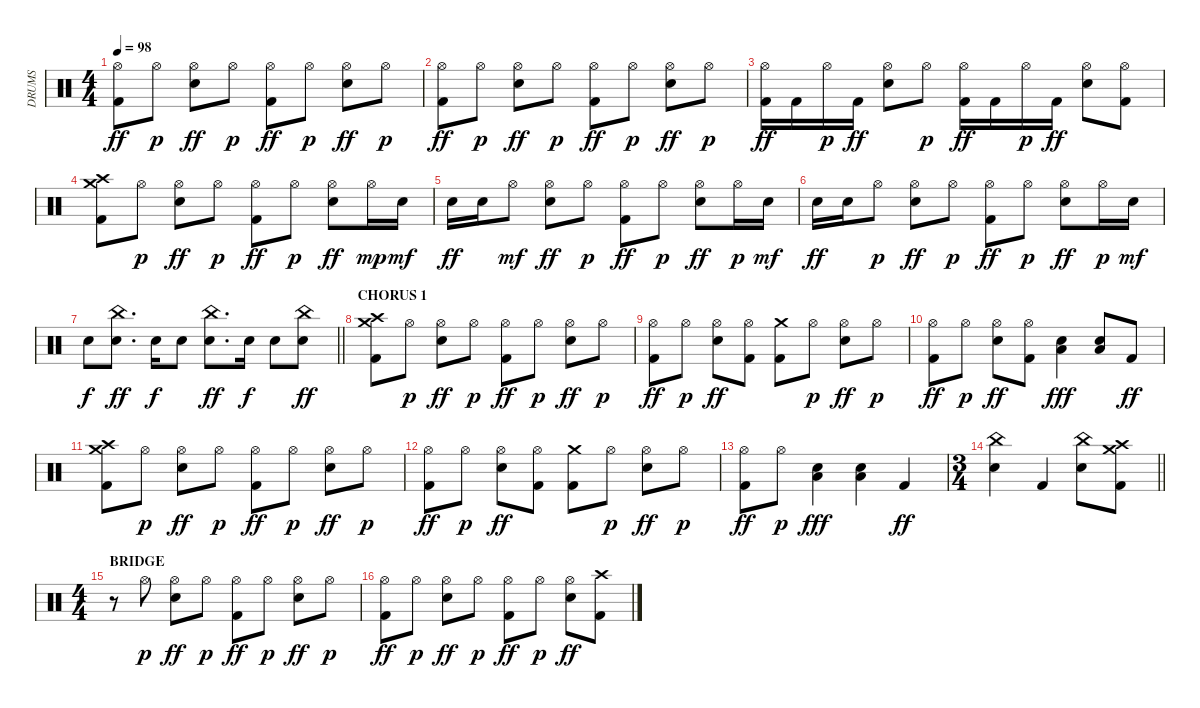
\track ("DRUMS" "DRUMS") {instrument percussion}
\staff {score}
\articulation defaults
\ts (4 4)
\tempo 98
\clef neutral
\ks c
("Hi-Hat (open)" "Kick (hit) 2").8{dy ff} "Hi-Hat (open)".8{dy p} ("Hi-Hat (open)" "Snare (hit) 2").8{dy ff} "Hi-Hat (open)".8{dy p} ("Hi-Hat (open)" "Kick (hit) 2").8{dy ff} "Hi-Hat (open)".8{dy p} ("Hi-Hat (open)" "Snare (hit) 2").8{dy ff} "Hi-Hat (open)".8{dy p} |
("Hi-Hat (open)" "Kick (hit) 2").8{dy ff} "Hi-Hat (open)".8{dy p} ("Hi-Hat (open)" "Snare (hit) 2").8{dy ff} "Hi-Hat (open)".8{dy p} ("Hi-Hat (open)" "Kick (hit) 2").8{dy ff} "Hi-Hat (open)".8{dy p} ("Hi-Hat (open)" "Snare (hit) 2").8{dy ff} "Hi-Hat (open)".8{dy p} |
("Hi-Hat (open)" "Kick (hit) 2").16{dy ff} "Kick (hit) 2".16 "Hi-Hat (open)".16{dy p} "Kick (hit) 2".16{dy ff} ("Hi-Hat (open)" "Snare (hit) 2").8 "Hi-Hat (open)".8{dy p} ("Hi-Hat (open)" "Kick (hit) 2").16{dy ff} "Kick (hit) 2".16 "Hi-Hat (open)".16{dy p} "Kick (hit) 2".16{dy ff} ("Hi-Hat (open)" "Snare (hit) 2").8 ("Hi-Hat (open)" "Kick (hit) 2").8 |
("Crash high (hit)" "Crash medium (hit)" "Kick (hit) 2").8 "Hi-Hat (open)".8{dy p} ("Hi-Hat (open)" "Snare (hit) 2").8{dy ff} "Hi-Hat (open)".8{dy p} ("Hi-Hat (open)" "Kick (hit) 2").8{dy ff} "Hi-Hat (open)".8{dy p} ("Hi-Hat (open)" "Snare (hit) 2").8{dy ff} "Hi-Hat (open)".16{dy mp} "Snare (hit) 2".16{dy mf} |
"Snare (hit) 2".16{dy ff} "Snare (hit) 2".16 "Hi-Hat (open)".8{dy mf} ("Hi-Hat (open)" "Snare (hit) 2").8{dy ff} "Hi-Hat (open)".8{dy p} ("Hi-Hat (open)" "Kick (hit) 2").8{dy ff} "Hi-Hat (open)".8{dy p} ("Hi-Hat (open)" "Snare (hit) 2").8{dy ff} "Hi-Hat (open)".16{dy p} "Snare (hit) 2".16{dy mf} |
"Snare (hit) 2".16{dy ff} "Snare (hit) 2".16 "Hi-Hat (open)".8{dy p} ("Hi-Hat (open)" "Snare (hit) 2").8{dy ff} "Hi-Hat (open)".8{dy p} ("Hi-Hat (open)" "Kick (hit) 2").8{dy ff} "Hi-Hat (open)".8{dy p} ("Hi-Hat (open)" "Snare (hit) 2").8{dy ff} "Hi-Hat (open)".16{dy p} "Snare (hit) 2".16{dy mf} |
\barLineRight lightlight "Snare (hit) 2".8{dy f}
("China (hit)" "Snare (hit) 2").8{d dy ff} "Snare (hit) 2".16{dy f} "Snare (hit) 2".8 ("China (hit)" "Snare (hit) 2").8{d dy ff} "Snare (hit) 2".16{dy f} "Snare (hit) 2".8 ("China (hit)" "Snare (hit) 2").8{dy ff} |
\section ("" "CHORUS 1")
("Crash high (hit)" "Crash medium (hit)" "Kick (hit) 2").8 "Hi-Hat (open)".8{dy p} ("Hi-Hat (open)" "Snare (hit) 2").8{dy ff} "Hi-Hat (open)".8{dy p} ("Hi-Hat (open)" "Kick (hit) 2").8{dy ff} "Hi-Hat (open)".8{dy p} ("Hi-Hat (open)" "Snare (hit) 2").8{dy ff} "Hi-Hat (open)".8{dy p} |
("Hi-Hat (open)" "Kick (hit) 2").8{dy ff} "Hi-Hat (open)".8{dy p} ("Hi-Hat (open)" "Snare (hit) 2").8{dy ff} ("Hi-Hat (open)" "Kick (hit) 2").8 ("Crash medium (hit)" "Kick (hit) 2").8 "Hi-Hat (open)".8{dy p} ("Hi-Hat (open)" "Snare (hit) 2").8{dy ff} "Hi-Hat (open)".8{dy p} |
("Hi-Hat (open)" "Kick (hit) 2").8{dy ff} "Hi-Hat (open)".8{dy p} ("Hi-Hat (open)" "Snare (hit) 2").8{dy ff} ("Hi-Hat (open)" "Kick (hit) 2").8 ("Snare (hit) 2" "Low Floor Tom (hit)").4{dy fff} ("Snare (hit) 2" "Low Floor Tom (hit)").8 "Kick (hit) 2".8{dy ff} |
("Crash high (hit)" "Crash medium (hit)" "Kick (hit) 2").8 "Hi-Hat (open)".8{dy p} ("Hi-Hat (open)" "Snare (hit) 2").8{dy ff} "Hi-Hat (open)".8{dy p} ("Hi-Hat (open)" "Kick (hit) 2").8{dy ff} "Hi-Hat (open)".8{dy p} ("Hi-Hat (open)" "Snare (hit) 2").8{dy ff} "Hi-Hat (open)".8{dy p} |
("Hi-Hat (open)" "Kick (hit) 2").8{dy ff} "Hi-Hat (open)".8{dy p} ("Hi-Hat (open)" "Snare (hit) 2").8{dy ff} ("Hi-Hat (open)" "Kick (hit) 2").8 ("Crash medium (hit)" "Kick (hit) 2").8 "Hi-Hat (open)".8{dy p} ("Hi-Hat (open)" "Snare (hit) 2").8{dy ff} "Hi-Hat (open)".8{dy p} |
("Hi-Hat (open)" "Kick (hit) 2").8{dy ff} "Hi-Hat (open)".8{dy p} ("Snare (hit) 2" "Low Floor Tom (hit)").4{dy fff} ("Snare (hit) 2" "Low Floor Tom (hit)").4 "Kick (hit) 2".4{dy ff} |
\ts (3 4)
\barLineRight lightlight
("China (hit)" "Snare (hit) 2").4 "Kick (hit) 2".4 ("China (hit)" "Snare (hit) 2").8 ("Crash high (hit)" "Crash medium (hit)" "Kick (hit) 2").8 |
\ts (4 4)
\section ("" "BRIDGE")
r.8 "Hi-Hat (open)".8{dy p} ("Hi-Hat (open)" "Snare (hit) 2").8{dy ff} "Hi-Hat (open)".8{dy p} ("Hi-Hat (open)" "Kick (hit) 2").8{dy ff} "Hi-Hat (open)".8{dy p} ("Hi-Hat (open)" "Snare (hit) 2").8{dy ff} "Hi-Hat (open)".8{dy p} |
("Hi-Hat (open)" "Kick (hit) 2").8{dy ff} "Hi-Hat (open)".8{dy p} ("Hi-Hat (open)" "Snare (hit) 2").8{dy ff} "Hi-Hat (open)".8{dy p} ("Hi-Hat (open)" "Kick (hit) 2").8{dy ff} "Hi-Hat (open)".8{dy p} ("Hi-Hat (open)" "Snare (hit) 2").8{dy ff} ("Crash high (hit)" "Kick (hit) 2").8
